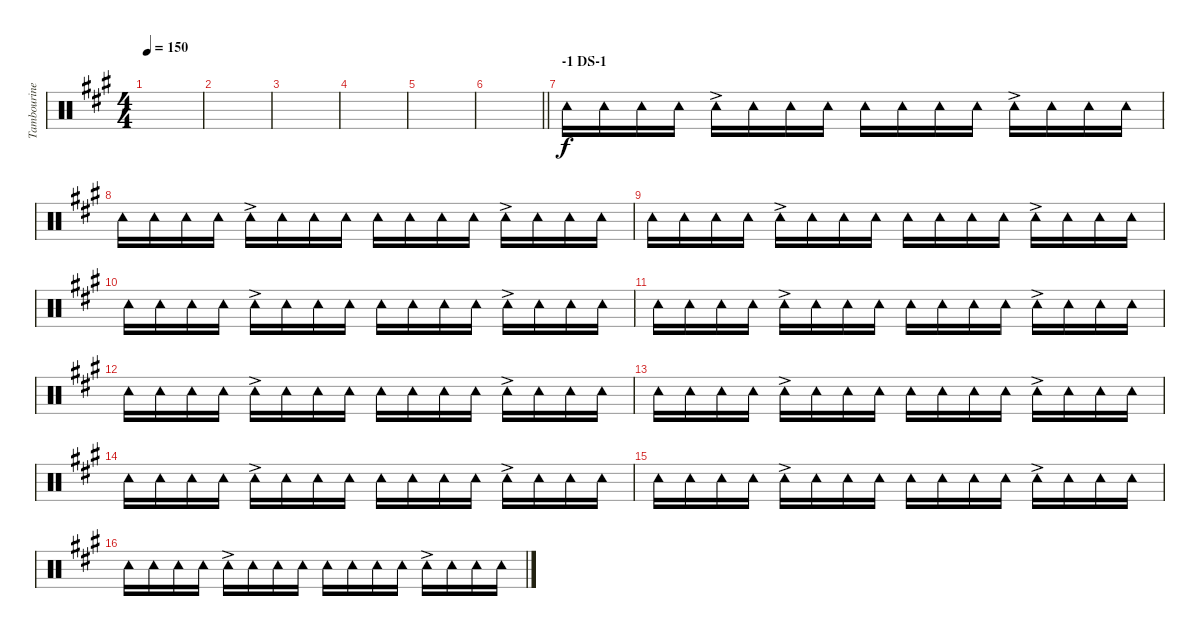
\track ("Tambourine" "Tambourine") {instrument percussion}
\staff {score}
\articulation defaults
\ts (4 4)
\tempo 150
\clef neutral
\ks a
|
|
|
|
|
\barLineRight lightlight
|
\section ("" "-1 DS-1")
"Tambourine (hit)".16 "Tambourine (hit)".16 "Tambourine (hit)".16 "Tambourine (hit)".16 "Tambourine (hit)"{ac}.16 "Tambourine (hit)".16 "Tambourine (hit)".16 "Tambourine (hit)".16 "Tambourine (hit)".16 "Tambourine (hit)".16 "Tambourine (hit)".16 "Tambourine (hit)".16 "Tambourine (hit)"{ac}.16 "Tambourine (hit)".16 "Tambourine (hit)".16 "Tambourine (hit)".16 |
"Tambourine (hit)".16 "Tambourine (hit)".16 "Tambourine (hit)".16 "Tambourine (hit)".16 "Tambourine (hit)"{ac}.16 "Tambourine (hit)".16 "Tambourine (hit)".16 "Tambourine (hit)".16 "Tambourine (hit)".16 "Tambourine (hit)".16 "Tambourine (hit)".16 "Tambourine (hit)".16 "Tambourine (hit)"{ac}.16 "Tambourine (hit)".16 "Tambourine (hit)".16 "Tambourine (hit)".16 |
"Tambourine (hit)".16 "Tambourine (hit)".16 "Tambourine (hit)".16 "Tambourine (hit)".16 "Tambourine (hit)"{ac}.16 "Tambourine (hit)".16 "Tambourine (hit)".16 "Tambourine (hit)".16 "Tambourine (hit)".16 "Tambourine (hit)".16 "Tambourine (hit)".16 "Tambourine (hit)".16 "Tambourine (hit)"{ac}.16 "Tambourine (hit)".16 "Tambourine (hit)".16 "Tambourine (hit)".16 |
"Tambourine (hit)".16 "Tambourine (hit)".16 "Tambourine (hit)".16 "Tambourine (hit)".16 "Tambourine (hit)"{ac}.16 "Tambourine (hit)".16 "Tambourine (hit)".16 "Tambourine (hit)".16 "Tambourine (hit)".16 "Tambourine (hit)".16 "Tambourine (hit)".16 "Tambourine (hit)".16 "Tambourine (hit)"{ac}.16 "Tambourine (hit)".16 "Tambourine (hit)".16 "Tambourine (hit)".16 |
"Tambourine (hit)".16 "Tambourine (hit)".16 "Tambourine (hit)".16 "Tambourine (hit)".16 "Tambourine (hit)"{ac}.16 "Tambourine (hit)".16 "Tambourine (hit)".16 "Tambourine (hit)".16 "Tambourine (hit)".16 "Tambourine (hit)".16 "Tambourine (hit)".16 "Tambourine (hit)".16 "Tambourine (hit)"{ac}.16 "Tambourine (hit)".16 "Tambourine (hit)".16 "Tambourine (hit)".16 |
"Tambourine (hit)".16 "Tambourine (hit)".16 "Tambourine (hit)".16 "Tambourine (hit)".16 "Tambourine (hit)"{ac}.16 "Tambourine (hit)".16 "Tambourine (hit)".16 "Tambourine (hit)".16 "Tambourine (hit)".16 "Tambourine (hit)".16 "Tambourine (hit)".16 "Tambourine (hit)".16 "Tambourine (hit)"{ac}.16 "Tambourine (hit)".16 "Tambourine (hit)".16 "Tambourine (hit)".16 |
"Tambourine (hit)".16 "Tambourine (hit)".16 "Tambourine (hit)".16 "Tambourine (hit)".16 "Tambourine (hit)"{ac}.16 "Tambourine (hit)".16 "Tambourine (hit)".16 "Tambourine (hit)".16 "Tambourine (hit)".16 "Tambourine (hit)".16 "Tambourine (hit)".16 "Tambourine (hit)".16 "Tambourine (hit)"{ac}.16 "Tambourine (hit)".16 "Tambourine (hit)".16 "Tambourine (hit)".16 |
"Tambourine (hit)".16 "Tambourine (hit)".16 "Tambourine (hit)".16 "Tambourine (hit)".16 "Tambourine (hit)"{ac}.16 "Tambourine (hit)".16 "Tambourine (hit)".16 "Tambourine (hit)".16 "Tambourine (hit)".16 "Tambourine (hit)".16 "Tambourine (hit)".16 "Tambourine (hit)".16 "Tambourine (hit)"{ac}.16 "Tambourine (hit)".16 "Tambourine (hit)".16 "Tambourine (hit)".16 |
"Tambourine (hit)".16 "Tambourine (hit)".16 "Tambourine (hit)".16 "Tambourine (hit)".16 "Tambourine (hit)"{ac}.16 "Tambourine (hit)".16 "Tambourine (hit)".16 "Tambourine (hit)".16 "Tambourine (hit)".16 "Tambourine (hit)".16 "Tambourine (hit)".16 "Tambourine (hit)".16 "Tambourine (hit)"{ac}.16 "Tambourine (hit)".16 "Tambourine (hit)".16 "Tambourine (hit)".16 |
"Tambourine (hit)".16 "Tambourine (hit)".16 "Tambourine (hit)".16 "Tambourine (hit)".16 "Tambourine (hit)"{ac}.16 "Tambourine (hit)".16 "Tambourine (hit)".16 "Tambourine (hit)".16 "Tambourine (hit)".16 "Tambourine (hit)".16 "Tambourine (hit)".16 "Tambourine (hit)".16 "Tambourine (hit)"{ac}.16 "Tambourine (hit)".16 "Tambourine (hit)".16 "Tambourine (hit)".16
